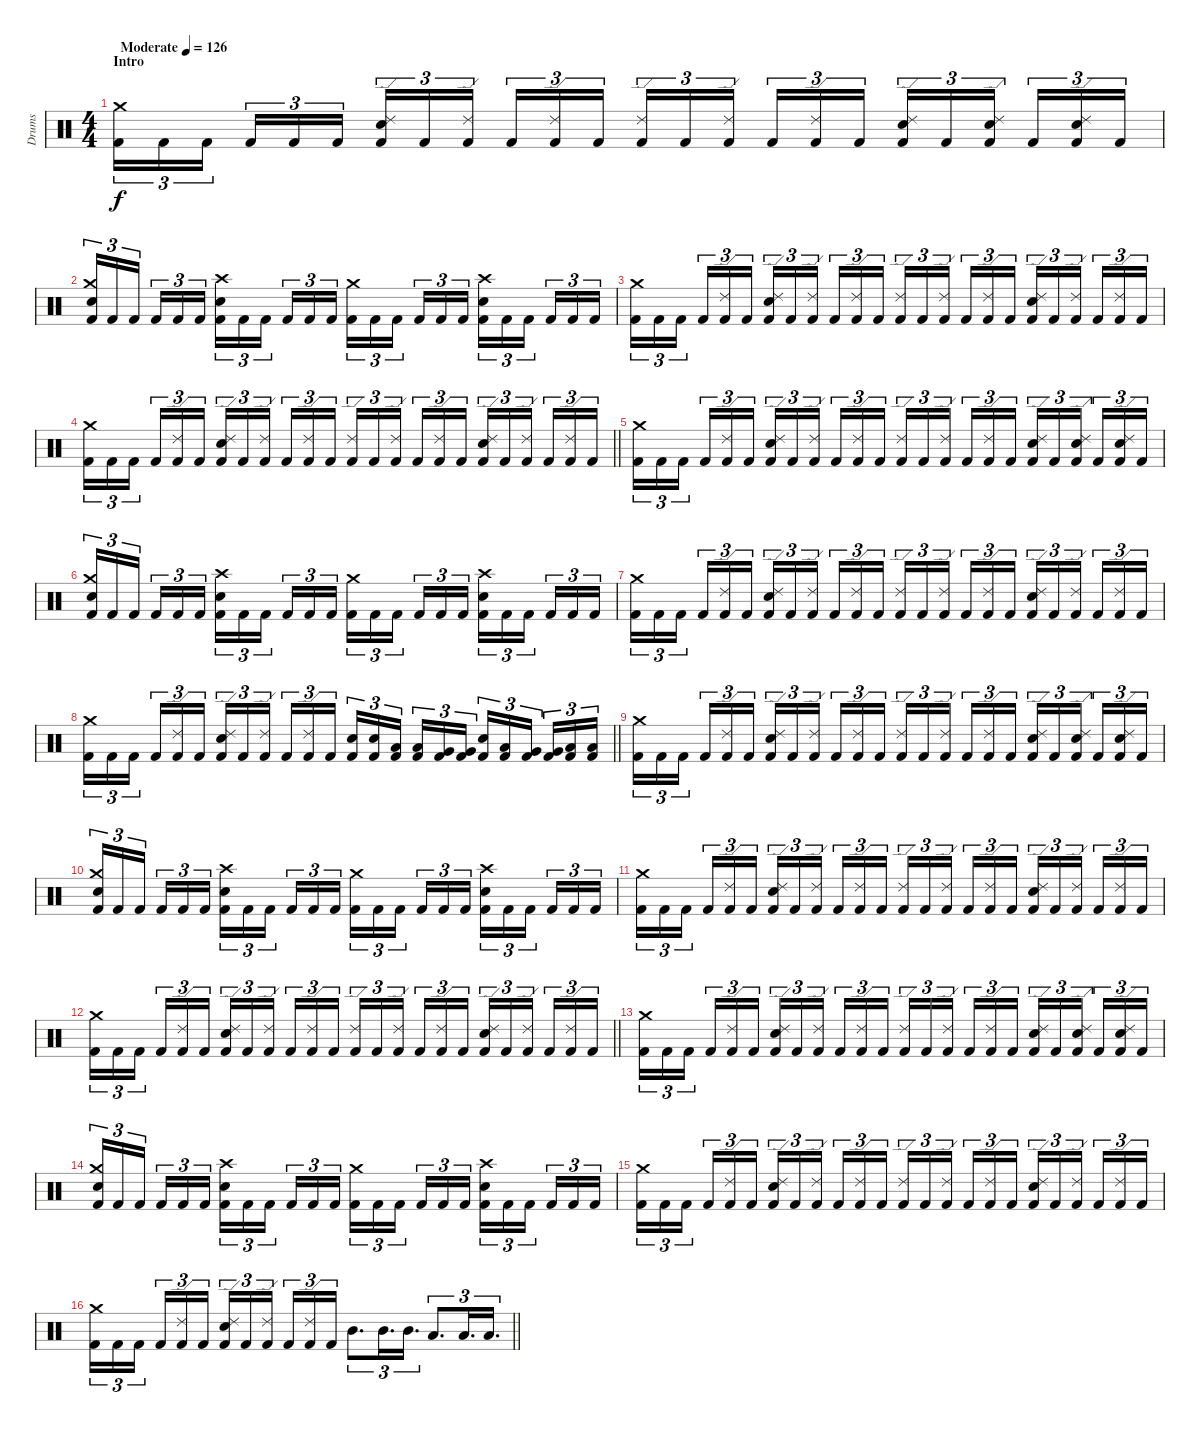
\track ("Drums" "Drums") {instrument percussion}
\staff {score}
\articulation defaults
\ts (4 4)
\section ("" "Intro")
\tempo (126 "Moderate")
\clef neutral
\ks c
("Kick (hit) 2" "Crash medium (hit)").16{tu (3 2) dy f} "Kick (hit) 2".16{tu (3 2)} "Kick (hit) 2".16{tu (3 2) beam splitsecondary} "Kick (hit) 2".16{tu (3 2)} "Kick (hit) 2".16{tu (3 2)} "Kick (hit) 2".16{tu (3 2)} ("Kick (hit) 2" "Snare (hit) 2" "Ride (edge) 2").16{tu (3 2)} "Kick (hit) 2".16{tu (3 2)} ("Kick (hit) 2" "Ride (edge) 2").16{tu (3 2) beam splitsecondary} "Kick (hit) 2".16{tu (3 2)} ("Kick (hit) 2" "Ride (edge) 2").16{tu (3 2)} "Kick (hit) 2".16{tu (3 2)} ("Kick (hit) 2" "Ride (edge) 2").16{tu (3 2)} "Kick (hit) 2".16{tu (3 2)} ("Kick (hit) 2" "Ride (edge) 2").16{tu (3 2) beam splitsecondary} "Kick (hit) 2".16{tu (3 2)} ("Kick (hit) 2" "Ride (edge) 2").16{tu (3 2)} "Kick (hit) 2".16{tu (3 2)} ("Kick (hit) 2" "Snare (hit) 2" "Ride (edge) 2").16{tu (3 2)} "Kick (hit) 2".16{tu (3 2)} ("Kick (hit) 2" "Snare (hit) 2" "Ride (edge) 2").16{tu (3 2) beam splitsecondary} "Kick (hit) 2".16{tu (3 2)} ("Kick (hit) 2" "Snare (hit) 2" "Ride (edge) 2").16{tu (3 2)} "Kick (hit) 2".16{tu (3 2)} |
("Kick (hit) 2" "Snare (hit) 2" "Crash medium (hit)").16{tu (3 2)} "Kick (hit) 2".16{tu (3 2)} "Kick (hit) 2".16{tu (3 2) beam splitsecondary} "Kick (hit) 2".16{tu (3 2)} "Kick (hit) 2".16{tu (3 2)} "Kick (hit) 2".16{tu (3 2)} ("Kick (hit) 2" "Snare (hit) 2" "Crash high (hit)").16{tu (3 2)} "Kick (hit) 2".16{tu (3 2)} "Kick (hit) 2".16{tu (3 2) beam splitsecondary} "Kick (hit) 2".16{tu (3 2)} "Kick (hit) 2".16{tu (3 2)} "Kick (hit) 2".16{tu (3 2)} ("Kick (hit) 2" "Crash medium (hit)").16{tu (3 2)} "Kick (hit) 2".16{tu (3 2)} "Kick (hit) 2".16{tu (3 2) beam splitsecondary} "Kick (hit) 2".16{tu (3 2)} "Kick (hit) 2".16{tu (3 2)} "Kick (hit) 2".16{tu (3 2)} ("Kick (hit) 2" "Snare (hit) 2" "Crash high (hit)").16{tu (3 2)} "Kick (hit) 2".16{tu (3 2)} "Kick (hit) 2".16{tu (3 2) beam splitsecondary} "Kick (hit) 2".16{tu (3 2)} "Kick (hit) 2".16{tu (3 2)} "Kick (hit) 2".16{tu (3 2)} |
("Kick (hit) 2" "Crash medium (hit)").16{tu (3 2)} "Kick (hit) 2".16{tu (3 2)} "Kick (hit) 2".16{tu (3 2) beam splitsecondary} "Kick (hit) 2".16{tu (3 2)} ("Kick (hit) 2" "Ride (edge) 2").16{tu (3 2)} "Kick (hit) 2".16{tu (3 2)} ("Kick (hit) 2" "Snare (hit) 2" "Ride (edge) 2").16{tu (3 2)} "Kick (hit) 2".16{tu (3 2)} ("Kick (hit) 2" "Ride (edge) 2").16{tu (3 2) beam splitsecondary} "Kick (hit) 2".16{tu (3 2)} ("Kick (hit) 2" "Ride (edge) 2").16{tu (3 2)} "Kick (hit) 2".16{tu (3 2)} ("Kick (hit) 2" "Ride (edge) 2").16{tu (3 2)} "Kick (hit) 2".16{tu (3 2)} ("Kick (hit) 2" "Ride (edge) 2").16{tu (3 2) beam splitsecondary} "Kick (hit) 2".16{tu (3 2)} ("Kick (hit) 2" "Ride (edge) 2").16{tu (3 2)} "Kick (hit) 2".16{tu (3 2)} ("Kick (hit) 2" "Snare (hit) 2" "Ride (edge) 2").16{tu (3 2)} "Kick (hit) 2".16{tu (3 2)} ("Kick (hit) 2" "Ride (edge) 2").16{tu (3 2) beam splitsecondary} "Kick (hit) 2".16{tu (3 2)} ("Kick (hit) 2" "Ride (edge) 2").16{tu (3 2)} "Kick (hit) 2".16{tu (3 2)} |
\barLineRight lightlight
("Kick (hit) 2" "Crash medium (hit)").16{tu (3 2)} "Kick (hit) 2".16{tu (3 2)} "Kick (hit) 2".16{tu (3 2) beam splitsecondary} "Kick (hit) 2".16{tu (3 2)} ("Kick (hit) 2" "Ride (edge) 2").16{tu (3 2)} "Kick (hit) 2".16{tu (3 2)} ("Kick (hit) 2" "Snare (hit) 2" "Ride (edge) 2").16{tu (3 2)} "Kick (hit) 2".16{tu (3 2)} ("Kick (hit) 2" "Ride (edge) 2").16{tu (3 2) beam splitsecondary} "Kick (hit) 2".16{tu (3 2)} ("Kick (hit) 2" "Ride (edge) 2").16{tu (3 2)} "Kick (hit) 2".16{tu (3 2)} ("Kick (hit) 2" "Ride (edge) 2").16{tu (3 2)} "Kick (hit) 2".16{tu (3 2)} ("Kick (hit) 2" "Ride (edge) 2").16{tu (3 2) beam splitsecondary} "Kick (hit) 2".16{tu (3 2)} ("Kick (hit) 2" "Ride (edge) 2").16{tu (3 2)} "Kick (hit) 2".16{tu (3 2)} ("Kick (hit) 2" "Snare (hit) 2" "Ride (edge) 2").16{tu (3 2)} "Kick (hit) 2".16{tu (3 2)} ("Kick (hit) 2" "Ride (edge) 2").16{tu (3 2) beam splitsecondary} "Kick (hit) 2".16{tu (3 2)} ("Kick (hit) 2" "Ride (edge) 2").16{tu (3 2)} "Kick (hit) 2".16{tu (3 2)} |
\section ("" "")
("Kick (hit) 2" "Crash medium (hit)").16{tu (3 2)} "Kick (hit) 2".16{tu (3 2)} "Kick (hit) 2".16{tu (3 2) beam splitsecondary} "Kick (hit) 2".16{tu (3 2)} ("Kick (hit) 2" "Ride (edge) 2").16{tu (3 2)} "Kick (hit) 2".16{tu (3 2)} ("Kick (hit) 2" "Snare (hit) 2" "Ride (edge) 2").16{tu (3 2)} "Kick (hit) 2".16{tu (3 2)} ("Kick (hit) 2" "Ride (edge) 2").16{tu (3 2) beam splitsecondary} "Kick (hit) 2".16{tu (3 2)} ("Kick (hit) 2" "Ride (edge) 2").16{tu (3 2)} "Kick (hit) 2".16{tu (3 2)} ("Kick (hit) 2" "Ride (edge) 2").16{tu (3 2)} "Kick (hit) 2".16{tu (3 2)} ("Kick (hit) 2" "Ride (edge) 2").16{tu (3 2) beam splitsecondary} "Kick (hit) 2".16{tu (3 2)} ("Kick (hit) 2" "Ride (edge) 2").16{tu (3 2)} "Kick (hit) 2".16{tu (3 2)} ("Kick (hit) 2" "Snare (hit) 2" "Ride (edge) 2").16{tu (3 2)} "Kick (hit) 2".16{tu (3 2)} ("Kick (hit) 2" "Snare (hit) 2" "Ride (edge) 2").16{tu (3 2) beam splitsecondary} "Kick (hit) 2".16{tu (3 2)} ("Kick (hit) 2" "Snare (hit) 2" "Ride (edge) 2").16{tu (3 2)} "Kick (hit) 2".16{tu (3 2)} |
("Kick (hit) 2" "Snare (hit) 2" "Crash medium (hit)").16{tu (3 2)} "Kick (hit) 2".16{tu (3 2)} "Kick (hit) 2".16{tu (3 2) beam splitsecondary} "Kick (hit) 2".16{tu (3 2)} "Kick (hit) 2".16{tu (3 2)} "Kick (hit) 2".16{tu (3 2)} ("Kick (hit) 2" "Snare (hit) 2" "Crash high (hit)").16{tu (3 2)} "Kick (hit) 2".16{tu (3 2)} "Kick (hit) 2".16{tu (3 2) beam splitsecondary} "Kick (hit) 2".16{tu (3 2)} "Kick (hit) 2".16{tu (3 2)} "Kick (hit) 2".16{tu (3 2)} ("Kick (hit) 2" "Crash medium (hit)").16{tu (3 2)} "Kick (hit) 2".16{tu (3 2)} "Kick (hit) 2".16{tu (3 2) beam splitsecondary} "Kick (hit) 2".16{tu (3 2)} "Kick (hit) 2".16{tu (3 2)} "Kick (hit) 2".16{tu (3 2)} ("Kick (hit) 2" "Snare (hit) 2" "Crash high (hit)").16{tu (3 2)} "Kick (hit) 2".16{tu (3 2)} "Kick (hit) 2".16{tu (3 2) beam splitsecondary} "Kick (hit) 2".16{tu (3 2)} "Kick (hit) 2".16{tu (3 2)} "Kick (hit) 2".16{tu (3 2)} |
("Kick (hit) 2" "Crash medium (hit)").16{tu (3 2)} "Kick (hit) 2".16{tu (3 2)} "Kick (hit) 2".16{tu (3 2) beam splitsecondary} "Kick (hit) 2".16{tu (3 2)} ("Kick (hit) 2" "Ride (edge) 2").16{tu (3 2)} "Kick (hit) 2".16{tu (3 2)} ("Kick (hit) 2" "Snare (hit) 2" "Ride (edge) 2").16{tu (3 2)} "Kick (hit) 2".16{tu (3 2)} ("Kick (hit) 2" "Ride (edge) 2").16{tu (3 2) beam splitsecondary} "Kick (hit) 2".16{tu (3 2)} ("Kick (hit) 2" "Ride (edge) 2").16{tu (3 2)} "Kick (hit) 2".16{tu (3 2)} ("Kick (hit) 2" "Ride (edge) 2").16{tu (3 2)} "Kick (hit) 2".16{tu (3 2)} ("Kick (hit) 2" "Ride (edge) 2").16{tu (3 2) beam splitsecondary} "Kick (hit) 2".16{tu (3 2)} ("Kick (hit) 2" "Ride (edge) 2").16{tu (3 2)} "Kick (hit) 2".16{tu (3 2)} ("Kick (hit) 2" "Snare (hit) 2" "Ride (edge) 2").16{tu (3 2)} "Kick (hit) 2".16{tu (3 2)} ("Kick (hit) 2" "Ride (edge) 2").16{tu (3 2) beam splitsecondary} "Kick (hit) 2".16{tu (3 2)} ("Kick (hit) 2" "Ride (edge) 2").16{tu (3 2)} "Kick (hit) 2".16{tu (3 2)} |
\barLineRight lightlight
("Kick (hit) 2" "Crash medium (hit)").16{tu (3 2)} "Kick (hit) 2".16{tu (3 2)} "Kick (hit) 2".16{tu (3 2) beam splitsecondary} "Kick (hit) 2".16{tu (3 2)} ("Kick (hit) 2" "Ride (edge) 2").16{tu (3 2)} "Kick (hit) 2".16{tu (3 2)} ("Kick (hit) 2" "Snare (hit) 2" "Ride (edge) 2").16{tu (3 2)} "Kick (hit) 2".16{tu (3 2)} ("Kick (hit) 2" "Ride (edge) 2").16{tu (3 2) beam splitsecondary} "Kick (hit) 2".16{tu (3 2)} ("Kick (hit) 2" "Ride (edge) 2").16{tu (3 2)} "Kick (hit) 2".16{tu (3 2)} ("Kick (hit) 2" "Snare (hit) 2").16{tu (3 2)} ("Kick (hit) 2" "Snare (hit) 2").16{tu (3 2)} ("Kick (hit) 2" "Low Tom (hit)").16{tu (3 2) beam splitsecondary} ("Kick (hit) 2" "Low Tom (hit)").16{tu (3 2)} ("Kick (hit) 2" "Very Low Tom (hit)").16{tu (3 2)} ("Kick (hit) 2" "Very Low Tom (hit)").16{tu (3 2)} ("Kick (hit) 2" "Snare (hit) 2").16{tu (3 2)} ("Kick (hit) 2" "Low Tom (hit)").16{tu (3 2)} ("Kick (hit) 2" "Very Low Tom (hit)").16{tu (3 2) beam splitsecondary} ("Kick (hit) 2" "Very Low Tom (hit)").16{tu (3 2)} ("Kick (hit) 2" "Low Floor Tom (hit)").16{tu (3 2)} ("Kick (hit) 2" "Low Floor Tom (hit)").16{tu (3 2)} |
\section ("" "")
("Kick (hit) 2" "Crash medium (hit)").16{tu (3 2)} "Kick (hit) 2".16{tu (3 2)} "Kick (hit) 2".16{tu (3 2) beam splitsecondary} "Kick (hit) 2".16{tu (3 2)} ("Kick (hit) 2" "Ride (edge) 2").16{tu (3 2)} "Kick (hit) 2".16{tu (3 2)} ("Kick (hit) 2" "Snare (hit) 2" "Ride (edge) 2").16{tu (3 2)} "Kick (hit) 2".16{tu (3 2)} ("Kick (hit) 2" "Ride (edge) 2").16{tu (3 2) beam splitsecondary} "Kick (hit) 2".16{tu (3 2)} ("Kick (hit) 2" "Ride (edge) 2").16{tu (3 2)} "Kick (hit) 2".16{tu (3 2)} ("Kick (hit) 2" "Ride (edge) 2").16{tu (3 2)} "Kick (hit) 2".16{tu (3 2)} ("Kick (hit) 2" "Ride (edge) 2").16{tu (3 2) beam splitsecondary} "Kick (hit) 2".16{tu (3 2)} ("Kick (hit) 2" "Ride (edge) 2").16{tu (3 2)} "Kick (hit) 2".16{tu (3 2)} ("Kick (hit) 2" "Snare (hit) 2" "Ride (edge) 2").16{tu (3 2)} "Kick (hit) 2".16{tu (3 2)} ("Kick (hit) 2" "Snare (hit) 2" "Ride (edge) 2").16{tu (3 2) beam splitsecondary} "Kick (hit) 2".16{tu (3 2)} ("Kick (hit) 2" "Snare (hit) 2" "Ride (edge) 2").16{tu (3 2)} "Kick (hit) 2".16{tu (3 2)} |
("Kick (hit) 2" "Snare (hit) 2" "Crash medium (hit)").16{tu (3 2)} "Kick (hit) 2".16{tu (3 2)} "Kick (hit) 2".16{tu (3 2) beam splitsecondary} "Kick (hit) 2".16{tu (3 2)} "Kick (hit) 2".16{tu (3 2)} "Kick (hit) 2".16{tu (3 2)} ("Kick (hit) 2" "Snare (hit) 2" "Crash high (hit)").16{tu (3 2)} "Kick (hit) 2".16{tu (3 2)} "Kick (hit) 2".16{tu (3 2) beam splitsecondary} "Kick (hit) 2".16{tu (3 2)} "Kick (hit) 2".16{tu (3 2)} "Kick (hit) 2".16{tu (3 2)} ("Kick (hit) 2" "Crash medium (hit)").16{tu (3 2)} "Kick (hit) 2".16{tu (3 2)} "Kick (hit) 2".16{tu (3 2) beam splitsecondary} "Kick (hit) 2".16{tu (3 2)} "Kick (hit) 2".16{tu (3 2)} "Kick (hit) 2".16{tu (3 2)} ("Kick (hit) 2" "Snare (hit) 2" "Crash high (hit)").16{tu (3 2)} "Kick (hit) 2".16{tu (3 2)} "Kick (hit) 2".16{tu (3 2) beam splitsecondary} "Kick (hit) 2".16{tu (3 2)} "Kick (hit) 2".16{tu (3 2)} "Kick (hit) 2".16{tu (3 2)} |
("Kick (hit) 2" "Crash medium (hit)").16{tu (3 2)} "Kick (hit) 2".16{tu (3 2)} "Kick (hit) 2".16{tu (3 2) beam splitsecondary} "Kick (hit) 2".16{tu (3 2)} ("Kick (hit) 2" "Ride (edge) 2").16{tu (3 2)} "Kick (hit) 2".16{tu (3 2)} ("Kick (hit) 2" "Snare (hit) 2" "Ride (edge) 2").16{tu (3 2)} "Kick (hit) 2".16{tu (3 2)} ("Kick (hit) 2" "Ride (edge) 2").16{tu (3 2) beam splitsecondary} "Kick (hit) 2".16{tu (3 2)} ("Kick (hit) 2" "Ride (edge) 2").16{tu (3 2)} "Kick (hit) 2".16{tu (3 2)} ("Kick (hit) 2" "Ride (edge) 2").16{tu (3 2)} "Kick (hit) 2".16{tu (3 2)} ("Kick (hit) 2" "Ride (edge) 2").16{tu (3 2) beam splitsecondary} "Kick (hit) 2".16{tu (3 2)} ("Kick (hit) 2" "Ride (edge) 2").16{tu (3 2)} "Kick (hit) 2".16{tu (3 2)} ("Kick (hit) 2" "Snare (hit) 2" "Ride (edge) 2").16{tu (3 2)} "Kick (hit) 2".16{tu (3 2)} ("Kick (hit) 2" "Ride (edge) 2").16{tu (3 2) beam splitsecondary} "Kick (hit) 2".16{tu (3 2)} ("Kick (hit) 2" "Ride (edge) 2").16{tu (3 2)} "Kick (hit) 2".16{tu (3 2)} |
\barLineRight lightlight
("Kick (hit) 2" "Crash medium (hit)").16{tu (3 2)} "Kick (hit) 2".16{tu (3 2)} "Kick (hit) 2".16{tu (3 2) beam splitsecondary} "Kick (hit) 2".16{tu (3 2)} ("Kick (hit) 2" "Ride (edge) 2").16{tu (3 2)} "Kick (hit) 2".16{tu (3 2)} ("Kick (hit) 2" "Snare (hit) 2" "Ride (edge) 2").16{tu (3 2)} "Kick (hit) 2".16{tu (3 2)} ("Kick (hit) 2" "Ride (edge) 2").16{tu (3 2) beam splitsecondary} "Kick (hit) 2".16{tu (3 2)} ("Kick (hit) 2" "Ride (edge) 2").16{tu (3 2)} "Kick (hit) 2".16{tu (3 2)} ("Kick (hit) 2" "Ride (edge) 2").16{tu (3 2)} "Kick (hit) 2".16{tu (3 2)} ("Kick (hit) 2" "Ride (edge) 2").16{tu (3 2) beam splitsecondary} "Kick (hit) 2".16{tu (3 2)} ("Kick (hit) 2" "Ride (edge) 2").16{tu (3 2)} "Kick (hit) 2".16{tu (3 2)} ("Kick (hit) 2" "Snare (hit) 2" "Ride (edge) 2").16{tu (3 2)} "Kick (hit) 2".16{tu (3 2)} ("Kick (hit) 2" "Ride (edge) 2").16{tu (3 2) beam splitsecondary} "Kick (hit) 2".16{tu (3 2)} ("Kick (hit) 2" "Ride (edge) 2").16{tu (3 2)} "Kick (hit) 2".16{tu (3 2)} |
\section ("" "")
("Kick (hit) 2" "Crash medium (hit)").16{tu (3 2)} "Kick (hit) 2".16{tu (3 2)} "Kick (hit) 2".16{tu (3 2) beam splitsecondary} "Kick (hit) 2".16{tu (3 2)} ("Kick (hit) 2" "Ride (edge) 2").16{tu (3 2)} "Kick (hit) 2".16{tu (3 2)} ("Kick (hit) 2" "Snare (hit) 2" "Ride (edge) 2").16{tu (3 2)} "Kick (hit) 2".16{tu (3 2)} ("Kick (hit) 2" "Ride (edge) 2").16{tu (3 2) beam splitsecondary} "Kick (hit) 2".16{tu (3 2)} ("Kick (hit) 2" "Ride (edge) 2").16{tu (3 2)} "Kick (hit) 2".16{tu (3 2)} ("Kick (hit) 2" "Ride (edge) 2").16{tu (3 2)} "Kick (hit) 2".16{tu (3 2)} ("Kick (hit) 2" "Ride (edge) 2").16{tu (3 2) beam splitsecondary} "Kick (hit) 2".16{tu (3 2)} ("Kick (hit) 2" "Ride (edge) 2").16{tu (3 2)} "Kick (hit) 2".16{tu (3 2)} ("Kick (hit) 2" "Snare (hit) 2" "Ride (edge) 2").16{tu (3 2)} "Kick (hit) 2".16{tu (3 2)} ("Kick (hit) 2" "Snare (hit) 2" "Ride (edge) 2").16{tu (3 2) beam splitsecondary} "Kick (hit) 2".16{tu (3 2)} ("Kick (hit) 2" "Snare (hit) 2" "Ride (edge) 2").16{tu (3 2)} "Kick (hit) 2".16{tu (3 2)} |
("Kick (hit) 2" "Snare (hit) 2" "Crash medium (hit)").16{tu (3 2)} "Kick (hit) 2".16{tu (3 2)} "Kick (hit) 2".16{tu (3 2) beam splitsecondary} "Kick (hit) 2".16{tu (3 2)} "Kick (hit) 2".16{tu (3 2)} "Kick (hit) 2".16{tu (3 2)} ("Kick (hit) 2" "Snare (hit) 2" "Crash high (hit)").16{tu (3 2)} "Kick (hit) 2".16{tu (3 2)} "Kick (hit) 2".16{tu (3 2) beam splitsecondary} "Kick (hit) 2".16{tu (3 2)} "Kick (hit) 2".16{tu (3 2)} "Kick (hit) 2".16{tu (3 2)} ("Kick (hit) 2" "Crash medium (hit)").16{tu (3 2)} "Kick (hit) 2".16{tu (3 2)} "Kick (hit) 2".16{tu (3 2) beam splitsecondary} "Kick (hit) 2".16{tu (3 2)} "Kick (hit) 2".16{tu (3 2)} "Kick (hit) 2".16{tu (3 2)} ("Kick (hit) 2" "Snare (hit) 2" "Crash high (hit)").16{tu (3 2)} "Kick (hit) 2".16{tu (3 2)} "Kick (hit) 2".16{tu (3 2) beam splitsecondary} "Kick (hit) 2".16{tu (3 2)} "Kick (hit) 2".16{tu (3 2)} "Kick (hit) 2".16{tu (3 2)} |
("Kick (hit) 2" "Crash medium (hit)").16{tu (3 2)} "Kick (hit) 2".16{tu (3 2)} "Kick (hit) 2".16{tu (3 2) beam splitsecondary} "Kick (hit) 2".16{tu (3 2)} ("Kick (hit) 2" "Ride (edge) 2").16{tu (3 2)} "Kick (hit) 2".16{tu (3 2)} ("Kick (hit) 2" "Snare (hit) 2" "Ride (edge) 2").16{tu (3 2)} "Kick (hit) 2".16{tu (3 2)} ("Kick (hit) 2" "Ride (edge) 2").16{tu (3 2) beam splitsecondary} "Kick (hit) 2".16{tu (3 2)} ("Kick (hit) 2" "Ride (edge) 2").16{tu (3 2)} "Kick (hit) 2".16{tu (3 2)} ("Kick (hit) 2" "Ride (edge) 2").16{tu (3 2)} "Kick (hit) 2".16{tu (3 2)} ("Kick (hit) 2" "Ride (edge) 2").16{tu (3 2) beam splitsecondary} "Kick (hit) 2".16{tu (3 2)} ("Kick (hit) 2" "Ride (edge) 2").16{tu (3 2)} "Kick (hit) 2".16{tu (3 2)} ("Kick (hit) 2" "Snare (hit) 2" "Ride (edge) 2").16{tu (3 2)} "Kick (hit) 2".16{tu (3 2)} ("Kick (hit) 2" "Ride (edge) 2").16{tu (3 2) beam splitsecondary} "Kick (hit) 2".16{tu (3 2)} ("Kick (hit) 2" "Ride (edge) 2").16{tu (3 2)} "Kick (hit) 2".16{tu (3 2)} |
\barLineRight lightlight
("Kick (hit) 2" "Crash medium (hit)").16{tu (3 2)} "Kick (hit) 2".16{tu (3 2)} "Kick (hit) 2".16{tu (3 2) beam splitsecondary} "Kick (hit) 2".16{tu (3 2)} ("Kick (hit) 2" "Ride (edge) 2").16{tu (3 2)} "Kick (hit) 2".16{tu (3 2)} ("Kick (hit) 2" "Snare (hit) 2" "Ride (edge) 2").16{tu (3 2)} "Kick (hit) 2".16{tu (3 2)} ("Kick (hit) 2" "Ride (edge) 2").16{tu (3 2) beam splitsecondary} "Kick (hit) 2".16{tu (3 2)} ("Kick (hit) 2" "Ride (edge) 2").16{tu (3 2)} "Kick (hit) 2".16{tu (3 2)} "Mid Tom (hit)".8{d tu (3 2)} "Mid Tom (hit)".16{d tu (3 2)} "Mid Tom (hit)".16{d tu (3 2)} "Low Tom (hit)".8{d tu (3 2)} "Low Tom (hit)".16{d tu (3 2)} "Low Tom (hit)".16{d tu (3 2)}
